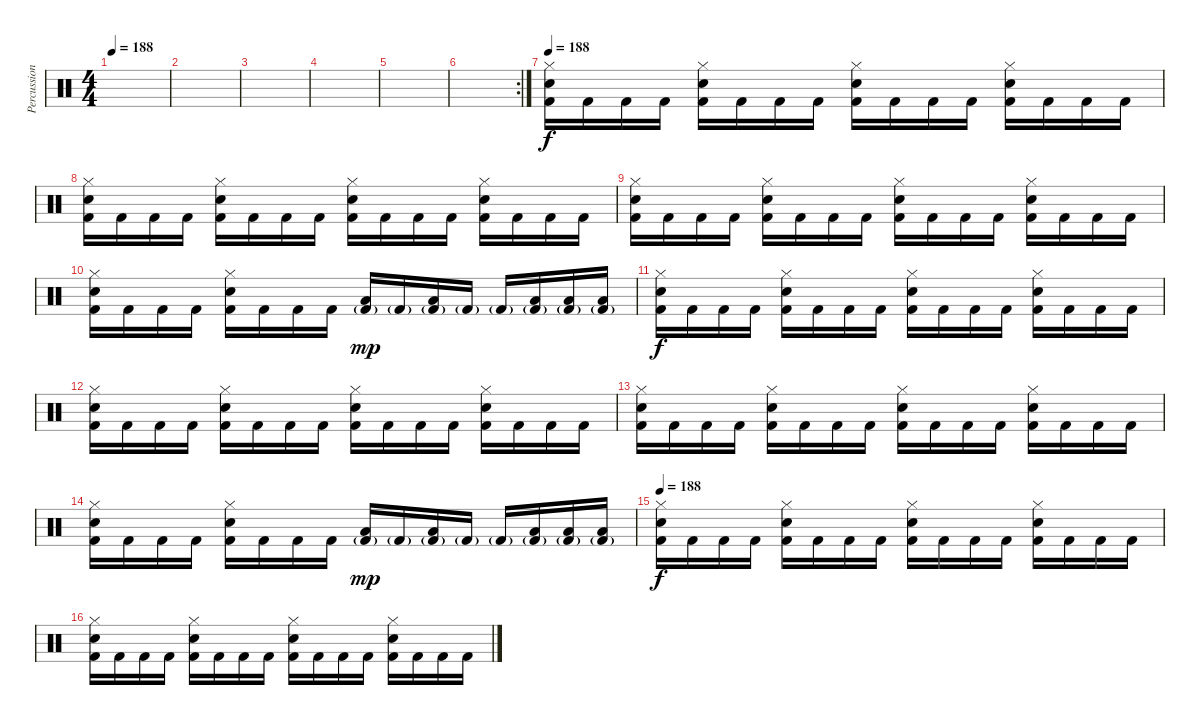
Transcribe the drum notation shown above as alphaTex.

\track ("Percussion" "Percussion") {instrument percussion}
\staff {score}
\articulation defaults
\ts (4 4)
\tempo 188
\clef neutral
\ks c
|
|
|
|
|
\rc 2
|
\tempo 188
("Hi-Hat (closed)" "Electric Snare (hit)" "Kick (hit) 2").16 "Kick (hit) 2".16 "Kick (hit) 2".16 "Kick (hit) 2".16 ("Hi-Hat (closed)" "Electric Snare (hit)" "Kick (hit) 2").16 "Kick (hit) 2".16 "Kick (hit) 2".16 "Kick (hit) 2".16 ("Hi-Hat (closed)" "Electric Snare (hit)" "Kick (hit) 2").16 "Kick (hit) 2".16 "Kick (hit) 2".16 "Kick (hit) 2".16 ("Hi-Hat (closed)" "Electric Snare (hit)" "Kick (hit) 2").16 "Kick (hit) 2".16 "Kick (hit) 2".16 "Kick (hit) 2".16 |
("Hi-Hat (closed)" "Electric Snare (hit)" "Kick (hit) 2").16 "Kick (hit) 2".16 "Kick (hit) 2".16 "Kick (hit) 2".16 ("Hi-Hat (closed)" "Electric Snare (hit)" "Kick (hit) 2").16 "Kick (hit) 2".16 "Kick (hit) 2".16 "Kick (hit) 2".16 ("Hi-Hat (closed)" "Electric Snare (hit)" "Kick (hit) 2").16 "Kick (hit) 2".16 "Kick (hit) 2".16 "Kick (hit) 2".16 ("Hi-Hat (closed)" "Electric Snare (hit)" "Kick (hit) 2").16 "Kick (hit) 2".16 "Kick (hit) 2".16 "Kick (hit) 2".16 |
("Hi-Hat (closed)" "Electric Snare (hit)" "Kick (hit) 2").16 "Kick (hit) 2".16 "Kick (hit) 2".16 "Kick (hit) 2".16 ("Hi-Hat (closed)" "Electric Snare (hit)" "Kick (hit) 2").16 "Kick (hit) 2".16 "Kick (hit) 2".16 "Kick (hit) 2".16 ("Hi-Hat (closed)" "Electric Snare (hit)" "Kick (hit) 2").16 "Kick (hit) 2".16 "Kick (hit) 2".16 "Kick (hit) 2".16 ("Hi-Hat (closed)" "Electric Snare (hit)" "Kick (hit) 2").16 "Kick (hit) 2".16 "Kick (hit) 2".16 "Kick (hit) 2".16 |
("Hi-Hat (closed)" "Electric Snare (hit)" "Kick (hit) 2").16 "Kick (hit) 2".16 "Kick (hit) 2".16 "Kick (hit) 2".16 ("Hi-Hat (closed)" "Electric Snare (hit)" "Kick (hit) 2").16 "Kick (hit) 2".16 "Kick (hit) 2".16 "Kick (hit) 2".16 ("Low Floor Tom (hit)" "Kick (hit) 2"{g}).16{dy mp} "Kick (hit) 2"{g}.16 ("Low Floor Tom (hit)" "Kick (hit) 2"{g}).16 "Kick (hit) 2"{g}.16 "Kick (hit) 2"{g}.16 ("Low Floor Tom (hit)" "Kick (hit) 2"{g}).16 ("Low Floor Tom (hit)" "Kick (hit) 2"{g}).16 ("Low Floor Tom (hit)" "Kick (hit) 2"{g}).16 |
("Hi-Hat (closed)" "Electric Snare (hit)" "Kick (hit) 2").16{dy f} "Kick (hit) 2".16 "Kick (hit) 2".16 "Kick (hit) 2".16 ("Hi-Hat (closed)" "Electric Snare (hit)" "Kick (hit) 2").16 "Kick (hit) 2".16 "Kick (hit) 2".16 "Kick (hit) 2".16 ("Hi-Hat (closed)" "Electric Snare (hit)" "Kick (hit) 2").16 "Kick (hit) 2".16 "Kick (hit) 2".16 "Kick (hit) 2".16 ("Hi-Hat (closed)" "Electric Snare (hit)" "Kick (hit) 2").16 "Kick (hit) 2".16 "Kick (hit) 2".16 "Kick (hit) 2".16 |
("Hi-Hat (closed)" "Electric Snare (hit)" "Kick (hit) 2").16 "Kick (hit) 2".16 "Kick (hit) 2".16 "Kick (hit) 2".16 ("Hi-Hat (closed)" "Electric Snare (hit)" "Kick (hit) 2").16 "Kick (hit) 2".16 "Kick (hit) 2".16 "Kick (hit) 2".16 ("Hi-Hat (closed)" "Electric Snare (hit)" "Kick (hit) 2").16 "Kick (hit) 2".16 "Kick (hit) 2".16 "Kick (hit) 2".16 ("Hi-Hat (closed)" "Electric Snare (hit)" "Kick (hit) 2").16 "Kick (hit) 2".16 "Kick (hit) 2".16 "Kick (hit) 2".16 |
("Hi-Hat (closed)" "Electric Snare (hit)" "Kick (hit) 2").16 "Kick (hit) 2".16 "Kick (hit) 2".16 "Kick (hit) 2".16 ("Hi-Hat (closed)" "Electric Snare (hit)" "Kick (hit) 2").16 "Kick (hit) 2".16 "Kick (hit) 2".16 "Kick (hit) 2".16 ("Hi-Hat (closed)" "Electric Snare (hit)" "Kick (hit) 2").16 "Kick (hit) 2".16 "Kick (hit) 2".16 "Kick (hit) 2".16 ("Hi-Hat (closed)" "Electric Snare (hit)" "Kick (hit) 2").16 "Kick (hit) 2".16 "Kick (hit) 2".16 "Kick (hit) 2".16 |
("Hi-Hat (closed)" "Electric Snare (hit)" "Kick (hit) 2").16 "Kick (hit) 2".16 "Kick (hit) 2".16 "Kick (hit) 2".16 ("Hi-Hat (closed)" "Electric Snare (hit)" "Kick (hit) 2").16 "Kick (hit) 2".16 "Kick (hit) 2".16 "Kick (hit) 2".16 ("Low Floor Tom (hit)" "Kick (hit) 2"{g}).16{dy mp} "Kick (hit) 2"{g}.16 ("Low Floor Tom (hit)" "Kick (hit) 2"{g}).16 "Kick (hit) 2"{g}.16 "Kick (hit) 2"{g}.16 ("Low Floor Tom (hit)" "Kick (hit) 2"{g}).16 ("Low Floor Tom (hit)" "Kick (hit) 2"{g}).16 ("Low Floor Tom (hit)" "Kick (hit) 2"{g}).16 |
\tempo 188
("Hi-Hat (closed)" "Electric Snare (hit)" "Kick (hit) 2").16{dy f} "Kick (hit) 2".16 "Kick (hit) 2".16 "Kick (hit) 2".16 ("Hi-Hat (closed)" "Electric Snare (hit)" "Kick (hit) 2").16 "Kick (hit) 2".16 "Kick (hit) 2".16 "Kick (hit) 2".16 ("Hi-Hat (closed)" "Electric Snare (hit)" "Kick (hit) 2").16 "Kick (hit) 2".16 "Kick (hit) 2".16 "Kick (hit) 2".16 ("Hi-Hat (closed)" "Electric Snare (hit)" "Kick (hit) 2").16 "Kick (hit) 2".16 "Kick (hit) 2".16 "Kick (hit) 2".16 |
("Hi-Hat (closed)" "Electric Snare (hit)" "Kick (hit) 2").16 "Kick (hit) 2".16 "Kick (hit) 2".16 "Kick (hit) 2".16 ("Hi-Hat (closed)" "Electric Snare (hit)" "Kick (hit) 2").16 "Kick (hit) 2".16 "Kick (hit) 2".16 "Kick (hit) 2".16 ("Hi-Hat (closed)" "Electric Snare (hit)" "Kick (hit) 2").16 "Kick (hit) 2".16 "Kick (hit) 2".16 "Kick (hit) 2".16 ("Hi-Hat (closed)" "Electric Snare (hit)" "Kick (hit) 2").16 "Kick (hit) 2".16 "Kick (hit) 2".16 "Kick (hit) 2".16
